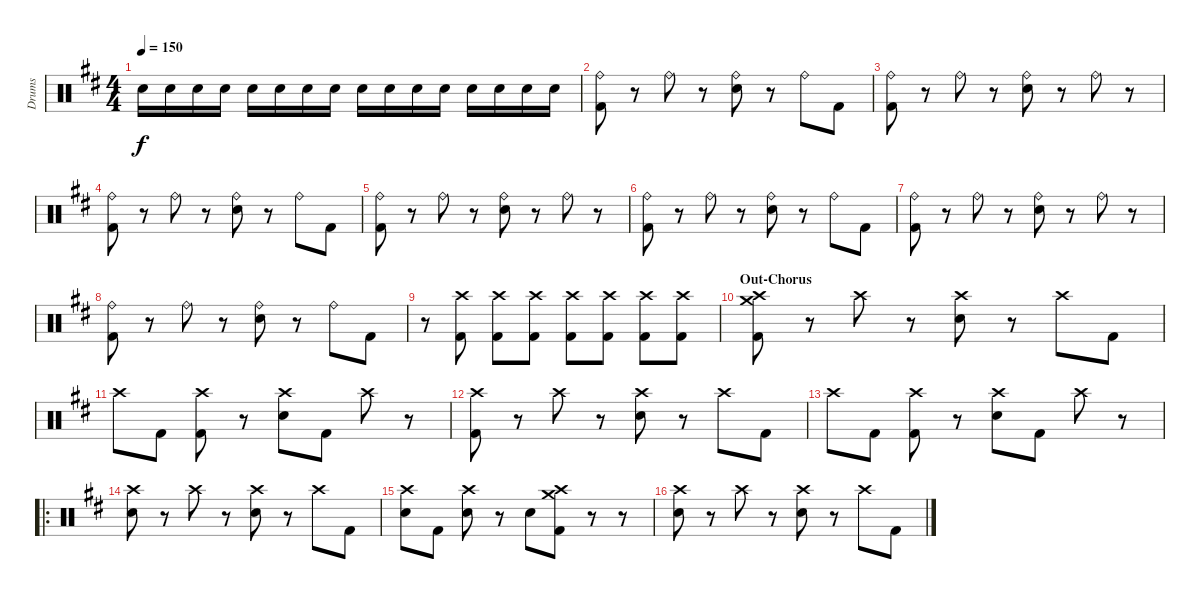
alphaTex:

\track ("Drums" "Drums") {instrument percussion}
\staff {score}
\articulation defaults
\ts (4 4)
\tempo 150
\clef neutral
\ks d "Snare (hit) 2".16{dy f} "Snare (hit) 2".16 "Snare (hit) 2".16 "Snare (hit) 2".16 "Snare (hit) 2".16 "Snare (hit) 2".16 "Snare (hit) 2".16 "Snare (hit) 2".16 "Snare (hit) 2".16 "Snare (hit) 2".16 "Snare (hit) 2".16 "Snare (hit) 2".16 "Snare (hit) 2".16 "Snare (hit) 2".16 "Snare (hit) 2".16 "Snare (hit) 2".16
|
("Ride (bell)" "Kick (hit) 2").8 r.8 "Ride (bell)".8 r.8 ("Ride (bell)" "Snare (hit) 2").8 r.8 "Ride (bell)".8 "Kick (hit) 2".8 |
("Ride (bell)" "Kick (hit) 2").8 r.8 "Ride (bell)".8 r.8 ("Ride (bell)" "Snare (hit) 2").8 r.8 "Ride (bell)".8 r.8 |
("Ride (bell)" "Kick (hit) 2").8 r.8 "Ride (bell)".8 r.8 ("Ride (bell)" "Snare (hit) 2").8 r.8 "Ride (bell)".8 "Kick (hit) 2".8 |
("Ride (bell)" "Kick (hit) 2").8 r.8 "Ride (bell)".8 r.8 ("Ride (bell)" "Snare (hit) 2").8 r.8 "Ride (bell)".8 r.8 |
("Ride (bell)" "Kick (hit) 2").8 r.8 "Ride (bell)".8 r.8 ("Ride (bell)" "Snare (hit) 2").8 r.8 "Ride (bell)".8 "Kick (hit) 2".8 |
("Ride (bell)" "Kick (hit) 2").8 r.8 "Ride (bell)".8 r.8 ("Ride (bell)" "Snare (hit) 2").8 r.8 "Ride (bell)".8 r.8 |
("Ride (bell)" "Kick (hit) 2").8 r.8 "Ride (bell)".8 r.8 ("Ride (bell)" "Snare (hit) 2").8 r.8 "Ride (bell)".8 "Kick (hit) 2".8 |
r.8 ("Crash high (hit)" "Kick (hit) 2").8 ("Crash high (hit)" "Kick (hit) 2").8 ("Crash high (hit)" "Kick (hit) 2").8 ("Crash high (hit)" "Kick (hit) 2").8 ("Crash high (hit)" "Kick (hit) 2").8 ("Crash high (hit)" "Kick (hit) 2").8 ("Crash high (hit)" "Kick (hit) 2").8 |
\section ("" "Out-Chorus")
("Crash medium (hit)" "Crash high (hit)" "Kick (hit) 2").8 r.8 "Crash high (hit)".8 r.8 ("Crash high (hit)" "Snare (hit) 2").8 r.8 "Crash high (hit)".8 "Kick (hit) 2".8 |
"Crash high (hit)".8 "Kick (hit) 2".8 ("Crash high (hit)" "Kick (hit) 2").8 r.8 ("Crash high (hit)" "Snare (hit) 2").8 "Kick (hit) 2".8 "Crash high (hit)".8 r.8 |
("Crash high (hit)" "Kick (hit) 2").8 r.8 "Crash high (hit)".8 r.8 ("Crash high (hit)" "Snare (hit) 2").8 r.8 "Crash high (hit)".8 "Kick (hit) 2".8 |
"Crash high (hit)".8 "Kick (hit) 2".8 ("Crash high (hit)" "Kick (hit) 2").8 r.8 ("Crash high (hit)" "Snare (hit) 2").8 "Kick (hit) 2".8 "Crash high (hit)".8 r.8 |
\ro
("Crash high (hit)" "Snare (hit) 2").8 r.8 "Crash high (hit)".8 r.8 ("Crash high (hit)" "Snare (hit) 2").8 r.8 "Crash high (hit)".8 "Kick (hit) 2".8 |
("Crash high (hit)" "Snare (hit) 2").8 "Kick (hit) 2".8 ("Crash high (hit)" "Snare (hit) 2").8 r.8 "Snare (hit) 2".8 ("Crash medium (hit)" "Crash high (hit)" "Kick (hit) 2").8 r.8 r.8 |
("Crash high (hit)" "Snare (hit) 2").8 r.8 "Crash high (hit)".8 r.8 ("Crash high (hit)" "Snare (hit) 2").8 r.8 "Crash high (hit)".8 "Kick (hit) 2".8
